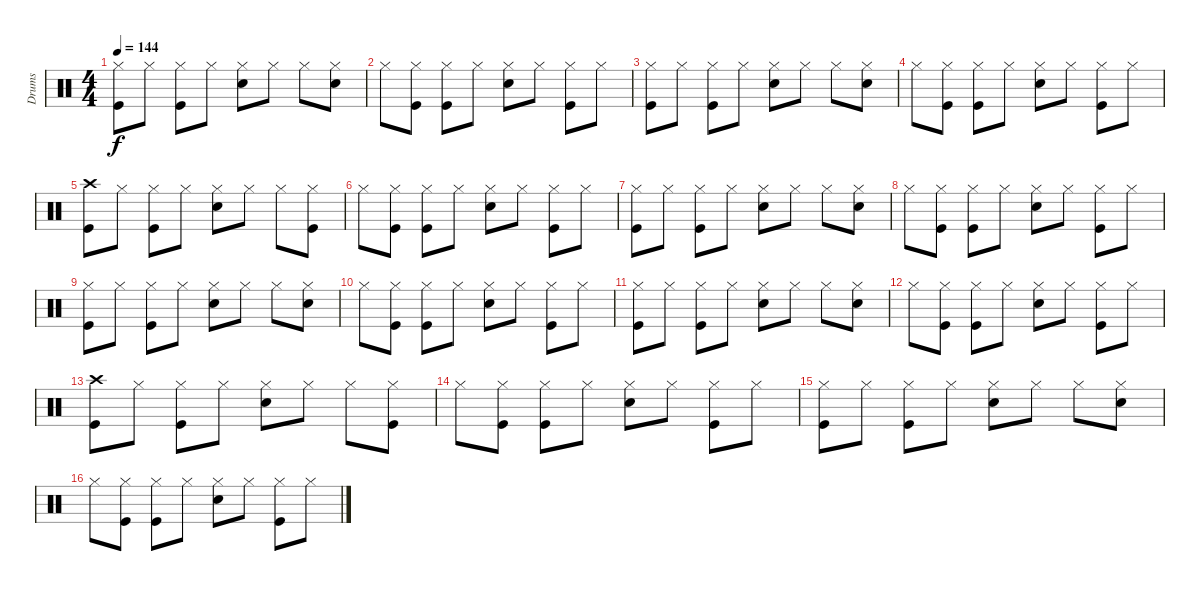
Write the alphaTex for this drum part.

\track ("Drums" "Drums") {instrument percussion}
\staff {score}
\articulation defaults
\ts (4 4)
\tempo 144
\clef neutral
\ks c
("Hi-Hat (closed)" "Kick (hit)").8{dy f} "Hi-Hat (closed)".8 ("Hi-Hat (closed)" "Kick (hit)").8 "Hi-Hat (closed)".8 ("Hi-Hat (closed)" "Snare (hit) 2").8 "Hi-Hat (closed)".8 "Hi-Hat (closed)".8 ("Hi-Hat (closed)" "Snare (hit) 2").8 |
"Hi-Hat (closed)".8 ("Hi-Hat (closed)" "Kick (hit)").8 ("Hi-Hat (closed)" "Kick (hit)").8 "Hi-Hat (closed)".8 ("Hi-Hat (closed)" "Snare (hit) 2").8 "Hi-Hat (closed)".8 ("Hi-Hat (closed)" "Kick (hit)").8 "Hi-Hat (closed)".8 |
("Hi-Hat (closed)" "Kick (hit)").8 "Hi-Hat (closed)".8 ("Hi-Hat (closed)" "Kick (hit)").8 "Hi-Hat (closed)".8 ("Hi-Hat (closed)" "Snare (hit) 2").8 "Hi-Hat (closed)".8 "Hi-Hat (closed)".8 ("Hi-Hat (closed)" "Snare (hit) 2").8 |
"Hi-Hat (closed)".8 ("Hi-Hat (closed)" "Kick (hit)").8 ("Hi-Hat (closed)" "Kick (hit)").8 "Hi-Hat (closed)".8 ("Hi-Hat (closed)" "Snare (hit) 2").8 "Hi-Hat (closed)".8 ("Hi-Hat (closed)" "Kick (hit)").8 "Hi-Hat (closed)".8 |
("Crash high (hit)" "Kick (hit)").8 "Hi-Hat (closed)".8 ("Hi-Hat (closed)" "Kick (hit)").8 "Hi-Hat (closed)".8 ("Hi-Hat (closed)" "Snare (hit) 2").8 "Hi-Hat (closed)".8 "Hi-Hat (closed)".8 ("Hi-Hat (closed)" "Kick (hit)").8 |
"Hi-Hat (closed)".8 ("Hi-Hat (closed)" "Kick (hit)").8 ("Hi-Hat (closed)" "Kick (hit)").8 "Hi-Hat (closed)".8 ("Hi-Hat (closed)" "Snare (hit) 2").8 "Hi-Hat (closed)".8 ("Hi-Hat (closed)" "Kick (hit)").8 "Hi-Hat (closed)".8 |
("Hi-Hat (closed)" "Kick (hit)").8 "Hi-Hat (closed)".8 ("Hi-Hat (closed)" "Kick (hit)").8 "Hi-Hat (closed)".8 ("Hi-Hat (closed)" "Snare (hit) 2").8 "Hi-Hat (closed)".8 "Hi-Hat (closed)".8 ("Hi-Hat (closed)" "Snare (hit) 2").8 |
"Hi-Hat (closed)".8 ("Hi-Hat (closed)" "Kick (hit)").8 ("Hi-Hat (closed)" "Kick (hit)").8 "Hi-Hat (closed)".8 ("Hi-Hat (closed)" "Snare (hit) 2").8 "Hi-Hat (closed)".8 ("Hi-Hat (closed)" "Kick (hit)").8 "Hi-Hat (closed)".8 |
("Hi-Hat (closed)" "Kick (hit)").8 "Hi-Hat (closed)".8 ("Hi-Hat (closed)" "Kick (hit)").8 "Hi-Hat (closed)".8 ("Hi-Hat (closed)" "Snare (hit) 2").8 "Hi-Hat (closed)".8 "Hi-Hat (closed)".8 ("Hi-Hat (closed)" "Snare (hit) 2").8 |
"Hi-Hat (closed)".8 ("Hi-Hat (closed)" "Kick (hit)").8 ("Hi-Hat (closed)" "Kick (hit)").8 "Hi-Hat (closed)".8 ("Hi-Hat (closed)" "Snare (hit) 2").8 "Hi-Hat (closed)".8 ("Hi-Hat (closed)" "Kick (hit)").8 "Hi-Hat (closed)".8 |
("Hi-Hat (closed)" "Kick (hit)").8 "Hi-Hat (closed)".8 ("Hi-Hat (closed)" "Kick (hit)").8 "Hi-Hat (closed)".8 ("Hi-Hat (closed)" "Snare (hit) 2").8 "Hi-Hat (closed)".8 "Hi-Hat (closed)".8 ("Hi-Hat (closed)" "Snare (hit) 2").8 |
"Hi-Hat (closed)".8 ("Hi-Hat (closed)" "Kick (hit)").8 ("Hi-Hat (closed)" "Kick (hit)").8 "Hi-Hat (closed)".8 ("Hi-Hat (closed)" "Snare (hit) 2").8 "Hi-Hat (closed)".8 ("Hi-Hat (closed)" "Kick (hit)").8 "Hi-Hat (closed)".8 |
("Crash high (hit)" "Kick (hit)").8 "Hi-Hat (closed)".8 ("Hi-Hat (closed)" "Kick (hit)").8 "Hi-Hat (closed)".8 ("Hi-Hat (closed)" "Snare (hit) 2").8 "Hi-Hat (closed)".8 "Hi-Hat (closed)".8 ("Hi-Hat (closed)" "Kick (hit)").8 |
"Hi-Hat (closed)".8 ("Hi-Hat (closed)" "Kick (hit)").8 ("Hi-Hat (closed)" "Kick (hit)").8 "Hi-Hat (closed)".8 ("Hi-Hat (closed)" "Snare (hit) 2").8 "Hi-Hat (closed)".8 ("Hi-Hat (closed)" "Kick (hit)").8 "Hi-Hat (closed)".8 |
("Hi-Hat (closed)" "Kick (hit)").8 "Hi-Hat (closed)".8 ("Hi-Hat (closed)" "Kick (hit)").8 "Hi-Hat (closed)".8 ("Hi-Hat (closed)" "Snare (hit) 2").8 "Hi-Hat (closed)".8 "Hi-Hat (closed)".8 ("Hi-Hat (closed)" "Snare (hit) 2").8 |
"Hi-Hat (closed)".8 ("Hi-Hat (closed)" "Kick (hit)").8 ("Hi-Hat (closed)" "Kick (hit)").8 "Hi-Hat (closed)".8 ("Hi-Hat (closed)" "Snare (hit) 2").8 "Hi-Hat (closed)".8 ("Hi-Hat (closed)" "Kick (hit)").8 "Hi-Hat (closed)".8
